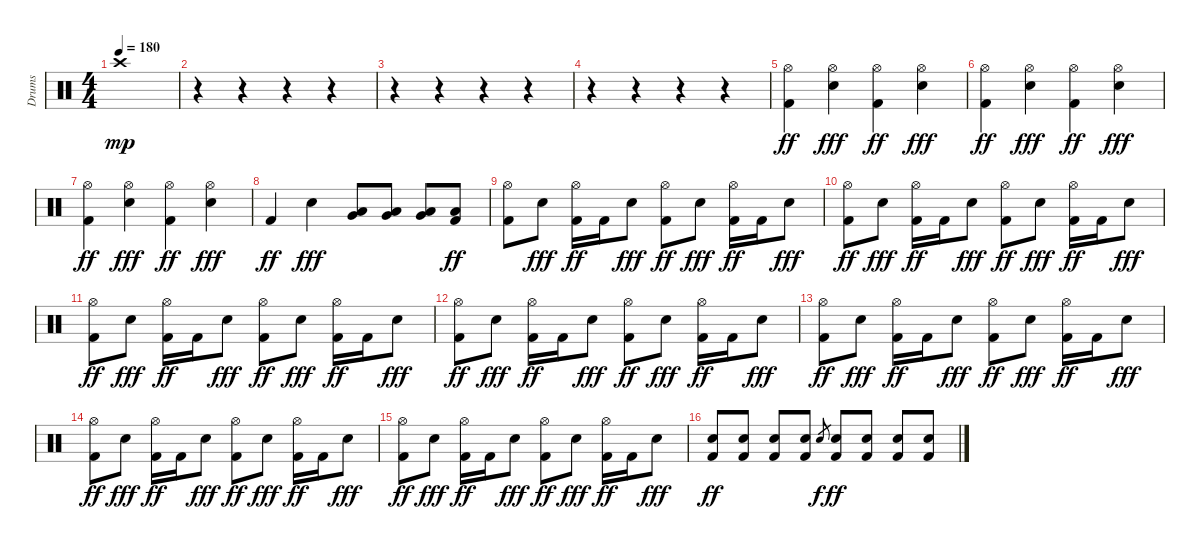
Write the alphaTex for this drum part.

\track ("Drums" "Drums") {instrument percussion}
\staff {score}
\articulation defaults
\ts (4 4)
\tempo 180
\clef neutral
\ks c "Crash high (hit)".1{dy mp}
|
r.4 r.4 r.4 r.4 |
r.4 r.4 r.4 r.4 |
r.4 r.4 r.4 r.4 |
("Hi-Hat (open)" "Kick (hit) 2").4{dy ff} ("Hi-Hat (open)" "Snare (hit) 2").4{dy fff} ("Hi-Hat (open)" "Kick (hit) 2").4{dy ff} ("Hi-Hat (open)" "Snare (hit) 2").4{dy fff} |
("Hi-Hat (open)" "Kick (hit) 2").4{dy ff} ("Hi-Hat (open)" "Snare (hit) 2").4{dy fff} ("Hi-Hat (open)" "Kick (hit) 2").4{dy ff} ("Hi-Hat (open)" "Snare (hit) 2").4{dy fff} |
("Hi-Hat (open)" "Kick (hit) 2").4{dy ff} ("Hi-Hat (open)" "Snare (hit) 2").4{dy fff} ("Hi-Hat (open)" "Kick (hit) 2").4{dy ff} ("Hi-Hat (open)" "Snare (hit) 2").4{dy fff} |
"Kick (hit) 2".4{dy ff} "Snare (hit) 2".4{dy fff} ("Low Tom (hit)" "Very Low Tom (hit)").8 ("Low Tom (hit)" "Very Low Tom (hit)").8 ("Very Low Tom (hit)" "Low Floor Tom (hit)").8 ("Low Floor Tom (hit)" "Kick (hit) 2").8{dy ff} |
("Hi-Hat (open)" "Kick (hit) 2").8 "Snare (hit) 2".8{dy fff} ("Hi-Hat (open)" "Kick (hit) 2").16{dy ff} "Kick (hit) 2".16 "Snare (hit) 2".8{dy fff} ("Hi-Hat (open)" "Kick (hit) 2").8{dy ff} "Snare (hit) 2".8{dy fff} ("Hi-Hat (open)" "Kick (hit) 2").16{dy ff} "Kick (hit) 2".16 "Snare (hit) 2".8{dy fff} |
("Hi-Hat (open)" "Kick (hit) 2").8{dy ff} "Snare (hit) 2".8{dy fff} ("Hi-Hat (open)" "Kick (hit) 2").16{dy ff} "Kick (hit) 2".16 "Snare (hit) 2".8{dy fff} ("Hi-Hat (open)" "Kick (hit) 2").8{dy ff} "Snare (hit) 2".8{dy fff} ("Hi-Hat (open)" "Kick (hit) 2").16{dy ff} "Kick (hit) 2".16 "Snare (hit) 2".8{dy fff} |
("Hi-Hat (open)" "Kick (hit) 2").8{dy ff} "Snare (hit) 2".8{dy fff} ("Hi-Hat (open)" "Kick (hit) 2").16{dy ff} "Kick (hit) 2".16 "Snare (hit) 2".8{dy fff} ("Hi-Hat (open)" "Kick (hit) 2").8{dy ff} "Snare (hit) 2".8{dy fff} ("Hi-Hat (open)" "Kick (hit) 2").16{dy ff} "Kick (hit) 2".16 "Snare (hit) 2".8{dy fff} |
("Hi-Hat (open)" "Kick (hit) 2").8{dy ff} "Snare (hit) 2".8{dy fff} ("Hi-Hat (open)" "Kick (hit) 2").16{dy ff} "Kick (hit) 2".16 "Snare (hit) 2".8{dy fff} ("Hi-Hat (open)" "Kick (hit) 2").8{dy ff} "Snare (hit) 2".8{dy fff} ("Hi-Hat (open)" "Kick (hit) 2").16{dy ff} "Kick (hit) 2".16 "Snare (hit) 2".8{dy fff} |
("Hi-Hat (open)" "Kick (hit) 2").8{dy ff} "Snare (hit) 2".8{dy fff} ("Hi-Hat (open)" "Kick (hit) 2").16{dy ff} "Kick (hit) 2".16 "Snare (hit) 2".8{dy fff} ("Hi-Hat (open)" "Kick (hit) 2").8{dy ff} "Snare (hit) 2".8{dy fff} ("Hi-Hat (open)" "Kick (hit) 2").16{dy ff} "Kick (hit) 2".16 "Snare (hit) 2".8{dy fff} |
("Hi-Hat (open)" "Kick (hit) 2").8{dy ff} "Snare (hit) 2".8{dy fff} ("Hi-Hat (open)" "Kick (hit) 2").16{dy ff} "Kick (hit) 2".16 "Snare (hit) 2".8{dy fff} ("Hi-Hat (open)" "Kick (hit) 2").8{dy ff} "Snare (hit) 2".8{dy fff} ("Hi-Hat (open)" "Kick (hit) 2").16{dy ff} "Kick (hit) 2".16 "Snare (hit) 2".8{dy fff} |
("Hi-Hat (open)" "Kick (hit) 2").8{dy ff} "Snare (hit) 2".8{dy fff} ("Hi-Hat (open)" "Kick (hit) 2").16{dy ff} "Kick (hit) 2".16 "Snare (hit) 2".8{dy fff} ("Hi-Hat (open)" "Kick (hit) 2").8{dy ff} "Snare (hit) 2".8{dy fff} ("Hi-Hat (open)" "Kick (hit) 2").16{dy ff} "Kick (hit) 2".16 "Snare (hit) 2".8{dy fff} |
("Snare (hit) 2" "Kick (hit) 2").8{dy ff} ("Snare (hit) 2" "Kick (hit) 2").8 ("Snare (hit) 2" "Kick (hit) 2").8 ("Snare (hit) 2" "Kick (hit) 2").8 "Snare (hit) 2".8{gr dy f} ("Snare (hit) 2" "Kick (hit) 2").8{dy ff} ("Snare (hit) 2" "Kick (hit) 2").8 ("Snare (hit) 2" "Kick (hit) 2").8 ("Snare (hit) 2" "Kick (hit) 2").8
